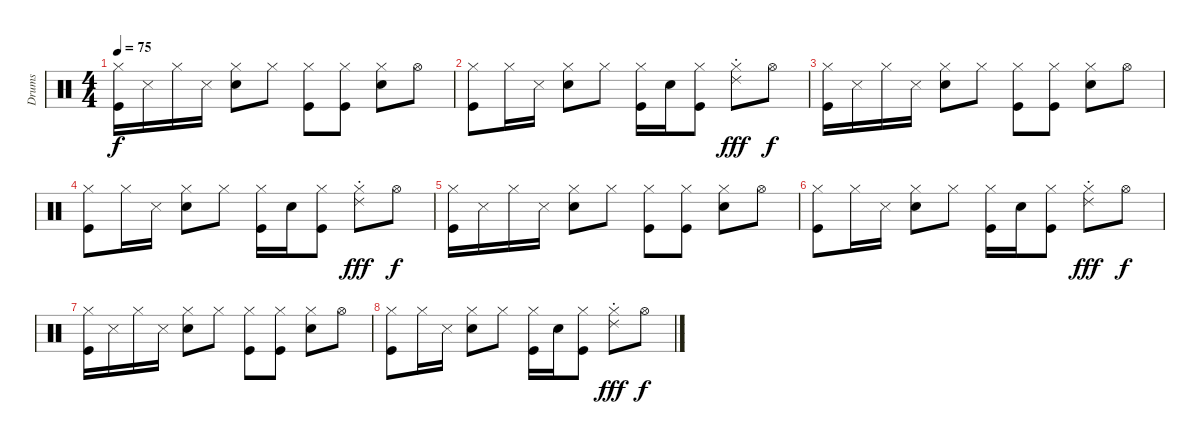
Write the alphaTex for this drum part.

\track ("Drums" "Drums") {instrument percussion}
\staff {score}
\articulation defaults
\ts (4 4)
\tempo 75
\clef neutral
\ks c
("Hi-Hat (closed)" "Kick (hit)").16{dy f} "Snare (side stick) 3".16 "Hi-Hat (closed)".16 "Snare (side stick) 3".16 ("Hi-Hat (closed)" "Metronome (bell)").8 "Hi-Hat (closed)".8 ("Hi-Hat (closed)" "Kick (hit)").8 ("Hi-Hat (closed)" "Kick (hit)").8 ("Hi-Hat (closed)" "Metronome (bell)").8 "Hi-Hat (open)".8 |
("Hi-Hat (closed)" "Kick (hit)").8 "Hi-Hat (closed)".16 "Snare (side stick) 3".16 ("Hi-Hat (closed)" "Metronome (bell)").8 "Hi-Hat (closed)".8 ("Hi-Hat (closed)" "Kick (hit)").16 "Metronome (bell)".16 ("Hi-Hat (closed)" "Kick (hit)").8 ("Hi-Hat (closed)" "Ride (choke) 2").8{dy fff} "Hi-Hat (open)".8{dy f} |
("Hi-Hat (closed)" "Kick (hit)").16 "Snare (side stick) 3".16 "Hi-Hat (closed)".16 "Snare (side stick) 3".16 ("Hi-Hat (closed)" "Metronome (bell)").8 "Hi-Hat (closed)".8 ("Hi-Hat (closed)" "Kick (hit)").8 ("Hi-Hat (closed)" "Kick (hit)").8 ("Hi-Hat (closed)" "Metronome (bell)").8 "Hi-Hat (open)".8 |
("Hi-Hat (closed)" "Kick (hit)").8 "Hi-Hat (closed)".16 "Snare (side stick) 3".16 ("Hi-Hat (closed)" "Metronome (bell)").8 "Hi-Hat (closed)".8 ("Hi-Hat (closed)" "Kick (hit)").16 "Metronome (bell)".16 ("Hi-Hat (closed)" "Kick (hit)").8 ("Hi-Hat (closed)" "Ride (choke) 2").8{dy fff} "Hi-Hat (open)".8{dy f} |
("Hi-Hat (closed)" "Kick (hit)").16 "Snare (side stick) 3".16 "Hi-Hat (closed)".16 "Snare (side stick) 3".16 ("Hi-Hat (closed)" "Metronome (bell)").8 "Hi-Hat (closed)".8 ("Hi-Hat (closed)" "Kick (hit)").8 ("Hi-Hat (closed)" "Kick (hit)").8 ("Hi-Hat (closed)" "Metronome (bell)").8 "Hi-Hat (open)".8 |
("Hi-Hat (closed)" "Kick (hit)").8 "Hi-Hat (closed)".16 "Snare (side stick) 3".16 ("Hi-Hat (closed)" "Metronome (bell)").8 "Hi-Hat (closed)".8 ("Hi-Hat (closed)" "Kick (hit)").16 "Metronome (bell)".16 ("Hi-Hat (closed)" "Kick (hit)").8 ("Hi-Hat (closed)" "Ride (choke) 2").8{dy fff} "Hi-Hat (open)".8{dy f} |
("Hi-Hat (closed)" "Kick (hit)").16 "Snare (side stick) 3".16 "Hi-Hat (closed)".16 "Snare (side stick) 3".16 ("Hi-Hat (closed)" "Metronome (bell)").8 "Hi-Hat (closed)".8 ("Hi-Hat (closed)" "Kick (hit)").8 ("Hi-Hat (closed)" "Kick (hit)").8 ("Hi-Hat (closed)" "Metronome (bell)").8 "Hi-Hat (open)".8 |
("Hi-Hat (closed)" "Kick (hit)").8 "Hi-Hat (closed)".16 "Snare (side stick) 3".16 ("Hi-Hat (closed)" "Metronome (bell)").8 "Hi-Hat (closed)".8 ("Hi-Hat (closed)" "Kick (hit)").16 "Metronome (bell)".16 ("Hi-Hat (closed)" "Kick (hit)").8 ("Hi-Hat (closed)" "Ride (choke) 2").8{dy fff} "Hi-Hat (open)".8{dy f}
